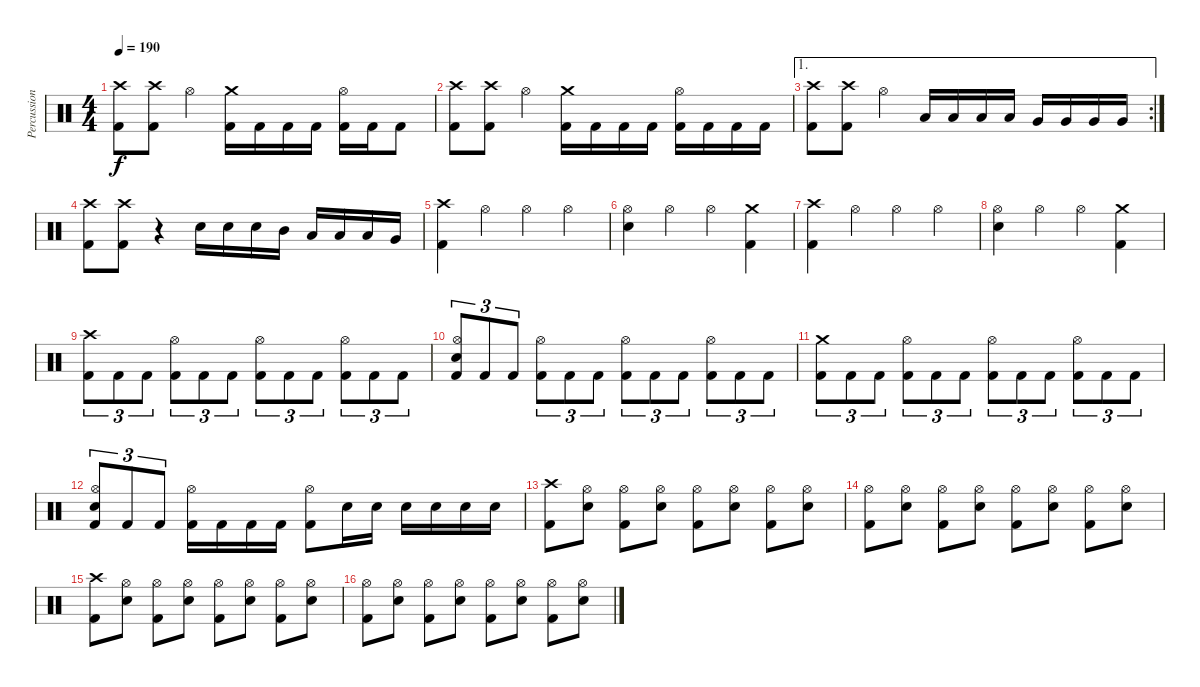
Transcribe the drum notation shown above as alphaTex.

\track ("Percussion" "Percussion") {instrument percussion}
\staff {score}
\articulation defaults
\ts (4 4)
\tempo 190
\clef neutral
\ks c
("Crash high (hit)" "Kick (hit) 2").8{dy f} ("Crash high (hit)" "Kick (hit) 2").8 "Hi-Hat (open)".4 ("Crash medium (hit)" "Kick (hit) 2").16 "Kick (hit) 2".16 "Kick (hit) 2".16 "Kick (hit) 2".16 ("Hi-Hat (open)" "Kick (hit) 2").16 "Kick (hit) 2".16 "Kick (hit) 2".8 |
("Crash high (hit)" "Kick (hit) 2").8 ("Crash high (hit)" "Kick (hit) 2").8 "Hi-Hat (open)".4 ("Crash medium (hit)" "Kick (hit) 2").16 "Kick (hit) 2".16 "Kick (hit) 2".16 "Kick (hit) 2".16 ("Hi-Hat (open)" "Kick (hit) 2").16 "Kick (hit) 2".16 "Kick (hit) 2".16 "Kick (hit) 2".16 |
\ae 1
\rc 2
("Crash high (hit)" "Kick (hit) 2").8 ("Crash high (hit)" "Kick (hit) 2").8 "Hi-Hat (open)".4 "Low Tom (hit)".16 "Low Tom (hit)".16 "Low Tom (hit)".16 "Low Tom (hit)".16 "Very Low Tom (hit)".16 "Very Low Tom (hit)".16 "Very Low Tom (hit)".16 "Very Low Tom (hit)".16 |
("Crash high (hit)" "Kick (hit) 2").8 ("Crash high (hit)" "Kick (hit) 2").8 r.4 "Snare (hit) 2".16 "Snare (hit) 2".16 "Snare (hit) 2".16 "Mid Tom (hit)".16 "Low Tom (hit)".16 "Low Tom (hit)".16 "Low Tom (hit)".16 "Very Low Tom (hit)".16 |
("Crash high (hit)" "Kick (hit) 2").4 "Hi-Hat (open)".4 "Hi-Hat (open)".4 "Hi-Hat (open)".4 |
("Hi-Hat (open)" "Snare (hit) 2").4 "Hi-Hat (open)".4 "Hi-Hat (open)".4 ("Crash medium (hit)" "Kick (hit) 2").4 |
("Crash high (hit)" "Kick (hit) 2").4 "Hi-Hat (open)".4 "Hi-Hat (open)".4 "Hi-Hat (open)".4 |
("Hi-Hat (open)" "Snare (hit) 2").4 "Hi-Hat (open)".4 "Hi-Hat (open)".4 ("Crash medium (hit)" "Kick (hit) 2").4 |
("Crash high (hit)" "Kick (hit) 2").8{tu (3 2)} "Kick (hit) 2".8{tu (3 2)} "Kick (hit) 2".8{tu (3 2)} ("Hi-Hat (open)" "Kick (hit) 2").8{tu (3 2)} "Kick (hit) 2".8{tu (3 2)} "Kick (hit) 2".8{tu (3 2)} ("Hi-Hat (open)" "Kick (hit) 2").8{tu (3 2)} "Kick (hit) 2".8{tu (3 2)} "Kick (hit) 2".8{tu (3 2)} ("Hi-Hat (open)" "Kick (hit) 2").8{tu (3 2)} "Kick (hit) 2".8{tu (3 2)} "Kick (hit) 2".8{tu (3 2)} |
("Hi-Hat (open)" "Snare (hit) 2" "Kick (hit) 2").8{tu (3 2)} "Kick (hit) 2".8{tu (3 2)} "Kick (hit) 2".8{tu (3 2)} ("Hi-Hat (open)" "Kick (hit) 2").8{tu (3 2)} "Kick (hit) 2".8{tu (3 2)} "Kick (hit) 2".8{tu (3 2)} ("Hi-Hat (open)" "Kick (hit) 2").8{tu (3 2)} "Kick (hit) 2".8{tu (3 2)} "Kick (hit) 2".8{tu (3 2)} ("Hi-Hat (open)" "Kick (hit) 2").8{tu (3 2)} "Kick (hit) 2".8{tu (3 2)} "Kick (hit) 2".8{tu (3 2)} |
("Crash medium (hit)" "Kick (hit) 2").8{tu (3 2)} "Kick (hit) 2".8{tu (3 2)} "Kick (hit) 2".8{tu (3 2)} ("Hi-Hat (open)" "Kick (hit) 2").8{tu (3 2)} "Kick (hit) 2".8{tu (3 2)} "Kick (hit) 2".8{tu (3 2)} ("Hi-Hat (open)" "Kick (hit) 2").8{tu (3 2)} "Kick (hit) 2".8{tu (3 2)} "Kick (hit) 2".8{tu (3 2)} ("Hi-Hat (open)" "Kick (hit) 2").8{tu (3 2)} "Kick (hit) 2".8{tu (3 2)} "Kick (hit) 2".8{tu (3 2)} |
("Hi-Hat (open)" "Snare (hit) 2" "Kick (hit) 2").8{tu (3 2)} "Kick (hit) 2".8{tu (3 2)} "Kick (hit) 2".8{tu (3 2)} ("Hi-Hat (open)" "Kick (hit) 2").16 "Kick (hit) 2".16 "Kick (hit) 2".16 "Kick (hit) 2".16 ("Hi-Hat (open)" "Kick (hit) 2").8 "Snare (hit) 2".16 "Snare (hit) 2".16 "Snare (hit) 2".16 "Snare (hit) 2".16 "Snare (hit) 2".16 "Snare (hit) 2".16 |
("Crash high (hit)" "Kick (hit) 2").8 ("Hi-Hat (open)" "Snare (hit) 2").8 ("Hi-Hat (open)" "Kick (hit) 2").8 ("Hi-Hat (open)" "Snare (hit) 2").8 ("Hi-Hat (open)" "Kick (hit) 2").8 ("Hi-Hat (open)" "Snare (hit) 2").8 ("Hi-Hat (open)" "Kick (hit) 2").8 ("Hi-Hat (open)" "Snare (hit) 2").8 |
("Hi-Hat (open)" "Kick (hit) 2").8 ("Hi-Hat (open)" "Snare (hit) 2").8 ("Hi-Hat (open)" "Kick (hit) 2").8 ("Hi-Hat (open)" "Snare (hit) 2").8 ("Hi-Hat (open)" "Kick (hit) 2").8 ("Hi-Hat (open)" "Snare (hit) 2").8 ("Hi-Hat (open)" "Kick (hit) 2").8 ("Hi-Hat (open)" "Snare (hit) 2").8 |
("Crash high (hit)" "Kick (hit) 2").8 ("Hi-Hat (open)" "Snare (hit) 2").8 ("Hi-Hat (open)" "Kick (hit) 2").8 ("Hi-Hat (open)" "Snare (hit) 2").8 ("Hi-Hat (open)" "Kick (hit) 2").8 ("Hi-Hat (open)" "Snare (hit) 2").8 ("Hi-Hat (open)" "Kick (hit) 2").8 ("Hi-Hat (open)" "Snare (hit) 2").8 |
("Hi-Hat (open)" "Kick (hit) 2").8 ("Hi-Hat (open)" "Snare (hit) 2").8 ("Hi-Hat (open)" "Kick (hit) 2").8 ("Hi-Hat (open)" "Snare (hit) 2").8 ("Hi-Hat (open)" "Kick (hit) 2").8 ("Hi-Hat (open)" "Snare (hit) 2").8 ("Hi-Hat (open)" "Kick (hit) 2").8 ("Hi-Hat (open)" "Snare (hit) 2").8
